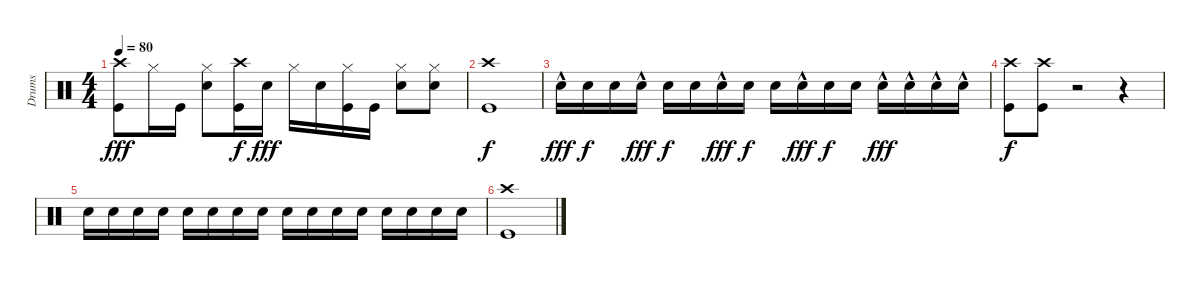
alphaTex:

\track ("Drums" "Drums") {instrument percussion}
\staff {score}
\articulation defaults
\ts (4 4)
\tempo 80
\clef neutral
\ks c
("Crash high (hit)" "Kick (hit)").8{dy fff} "Hi-Hat (closed)".16 "Kick (hit)".16 ("Hi-Hat (closed)" "Snare (hit) 2").8 ("Crash high (hit)" "Kick (hit)").16{dy f} "Snare (hit) 2".16{dy fff} "Hi-Hat (closed)".16 "Snare (hit) 2".16 ("Hi-Hat (closed)" "Kick (hit)").16 "Kick (hit)".16 ("Hi-Hat (closed)" "Snare (hit) 2").8 ("Hi-Hat (closed)" "Snare (hit) 2").8 |
("Crash high (hit)" "Kick (hit)").1{dy f} |
"Snare (hit) 2"{hac}.16{dy fff} "Snare (hit) 2".16{dy f} "Snare (hit) 2".16 "Snare (hit) 2"{hac}.16{dy fff} "Snare (hit) 2".16{dy f} "Snare (hit) 2".16 "Snare (hit) 2"{hac}.16{dy fff} "Snare (hit) 2".16{dy f} "Snare (hit) 2".16 "Snare (hit) 2"{hac}.16{dy fff} "Snare (hit) 2".16{dy f} "Snare (hit) 2".16 "Snare (hit) 2"{hac}.16{dy fff} "Snare (hit) 2"{hac}.16 "Snare (hit) 2"{hac}.16 "Snare (hit) 2"{hac}.16 |
("Crash high (hit)" "Kick (hit)").8{dy f} ("Crash high (hit)" "Kick (hit)").8 r.2 r.4 |
"Snare (hit) 2".16 "Snare (hit) 2".16 "Snare (hit) 2".16 "Snare (hit) 2".16 "Snare (hit) 2".16 "Snare (hit) 2".16 "Snare (hit) 2".16 "Snare (hit) 2".16 "Snare (hit) 2".16 "Snare (hit) 2".16 "Snare (hit) 2".16 "Snare (hit) 2".16 "Snare (hit) 2".16 "Snare (hit) 2".16 "Snare (hit) 2".16 "Snare (hit) 2".16 |
("Crash high (hit)" "Kick (hit)").1
